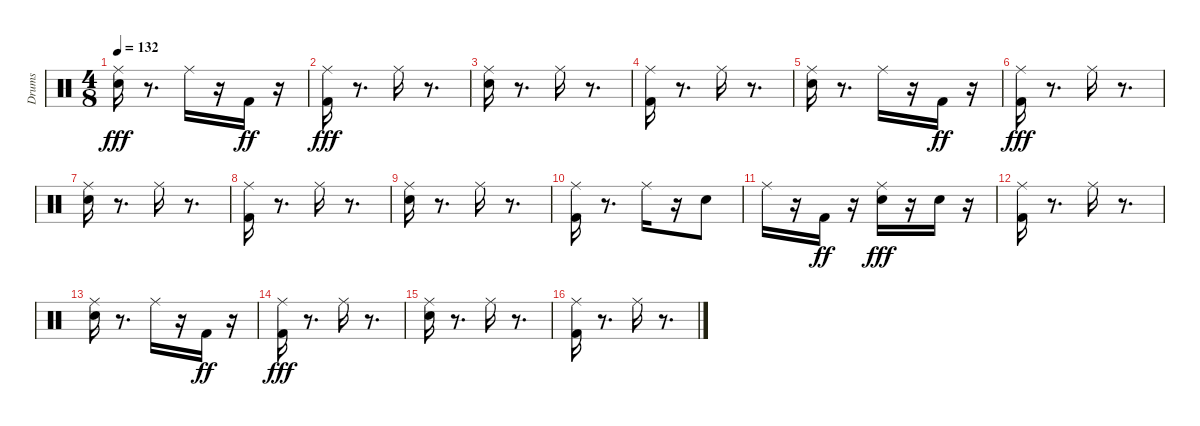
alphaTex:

\track ("Drums" "Drums") {instrument percussion}
\staff {score}
\articulation defaults
\ts (4 8)
\tempo 132
\clef neutral
\ks c
("Snare (hit) 2" "Ride (middle)").16{dy fff} r.8{d} "Ride (middle)".16 r.16 "Kick (hit) 2".16{dy ff} r.16 |
("Kick (hit) 2" "Ride (middle)").16{dy fff} r.8{d} "Ride (middle)".16 r.8{d} |
("Snare (hit) 2" "Ride (middle)").16 r.8{d} "Ride (middle)".16 r.8{d} |
("Kick (hit) 2" "Ride (middle)").16 r.8{d} "Ride (middle)".16 r.8{d} |
("Snare (hit) 2" "Ride (middle)").16 r.8{d} "Ride (middle)".16 r.16 "Kick (hit) 2".16{dy ff} r.16 |
("Kick (hit) 2" "Ride (middle)").16{dy fff} r.8{d} "Ride (middle)".16 r.8{d} |
("Snare (hit) 2" "Ride (middle)").16 r.8{d} "Ride (middle)".16 r.8{d} |
("Kick (hit) 2" "Ride (middle)").16 r.8{d} "Ride (middle)".16 r.8{d} |
("Snare (hit) 2" "Ride (middle)").16 r.8{d} "Ride (middle)".16 r.8{d} |
("Kick (hit) 2" "Ride (middle)").16 r.8{d} "Ride (middle)".16 r.16 "Snare (hit) 2".8 |
"Ride (middle)".16 r.16 "Kick (hit) 2".16{dy ff} r.16 ("Snare (hit) 2" "Ride (middle)").16{dy fff} r.16 "Snare (hit) 2".16 r.16 |
("Kick (hit) 2" "Ride (middle)").16 r.8{d} "Ride (middle)".16 r.8{d} |
("Snare (hit) 2" "Ride (middle)").16 r.8{d} "Ride (middle)".16 r.16 "Kick (hit) 2".16{dy ff} r.16 |
("Kick (hit) 2" "Ride (middle)").16{dy fff} r.8{d} "Ride (middle)".16 r.8{d} |
("Snare (hit) 2" "Ride (middle)").16 r.8{d} "Ride (middle)".16 r.8{d} |
("Kick (hit) 2" "Ride (middle)").16 r.8{d} "Ride (middle)".16 r.8{d}
